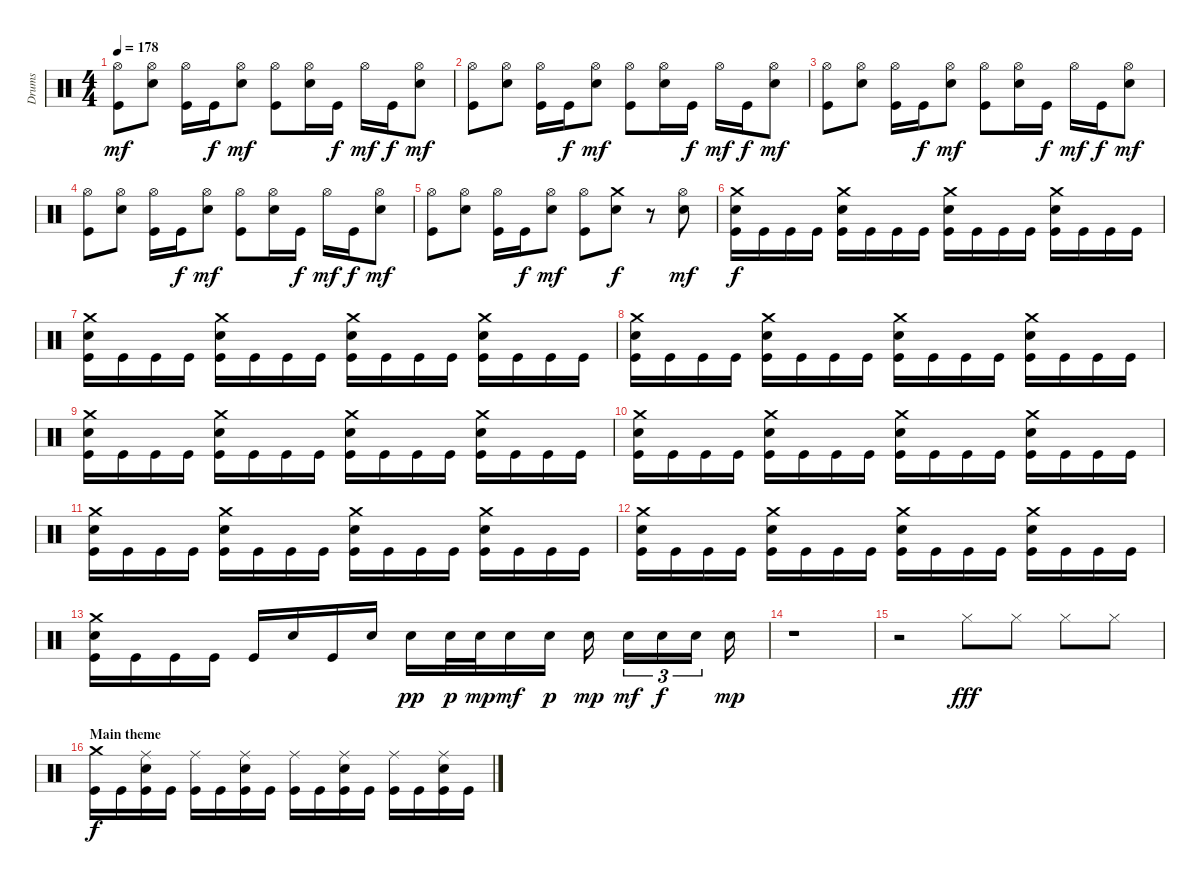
\track ("Drums" "Drums") {instrument percussion}
\staff {score}
\articulation defaults
\ts (4 4)
\tempo 178
\clef neutral
\ks c
("Hi-Hat (open)" "Kick (hit)").8{dy mf} ("Hi-Hat (open)" "Electric Snare (hit)").8 ("Hi-Hat (open)" "Kick (hit)").16 "Kick (hit)".16{dy f} ("Hi-Hat (open)" "Electric Snare (hit)").8{dy mf} ("Hi-Hat (open)" "Kick (hit)").8 ("Hi-Hat (open)" "Electric Snare (hit)").16 "Kick (hit)".16{dy f} "Hi-Hat (open)".16{dy mf} "Kick (hit)".16{dy f} ("Hi-Hat (open)" "Electric Snare (hit)").8{dy mf} |
("Hi-Hat (open)" "Kick (hit)").8 ("Hi-Hat (open)" "Electric Snare (hit)").8 ("Hi-Hat (open)" "Kick (hit)").16 "Kick (hit)".16{dy f} ("Hi-Hat (open)" "Electric Snare (hit)").8{dy mf} ("Hi-Hat (open)" "Kick (hit)").8 ("Hi-Hat (open)" "Electric Snare (hit)").16 "Kick (hit)".16{dy f} "Hi-Hat (open)".16{dy mf} "Kick (hit)".16{dy f} ("Hi-Hat (open)" "Electric Snare (hit)").8{dy mf} |
("Hi-Hat (open)" "Kick (hit)").8 ("Hi-Hat (open)" "Electric Snare (hit)").8 ("Hi-Hat (open)" "Kick (hit)").16 "Kick (hit)".16{dy f} ("Hi-Hat (open)" "Electric Snare (hit)").8{dy mf} ("Hi-Hat (open)" "Kick (hit)").8 ("Hi-Hat (open)" "Electric Snare (hit)").16 "Kick (hit)".16{dy f} "Hi-Hat (open)".16{dy mf} "Kick (hit)".16{dy f} ("Hi-Hat (open)" "Electric Snare (hit)").8{dy mf} |
("Hi-Hat (open)" "Kick (hit)").8 ("Hi-Hat (open)" "Electric Snare (hit)").8 ("Hi-Hat (open)" "Kick (hit)").16 "Kick (hit)".16{dy f} ("Hi-Hat (open)" "Electric Snare (hit)").8{dy mf} ("Hi-Hat (open)" "Kick (hit)").8 ("Hi-Hat (open)" "Electric Snare (hit)").16 "Kick (hit)".16{dy f} "Hi-Hat (open)".16{dy mf} "Kick (hit)".16{dy f} ("Hi-Hat (open)" "Electric Snare (hit)").8{dy mf} |
("Hi-Hat (open)" "Kick (hit)").8 ("Hi-Hat (open)" "Electric Snare (hit)").8 ("Hi-Hat (open)" "Kick (hit)").16 "Kick (hit)".16{dy f} ("Hi-Hat (open)" "Electric Snare (hit)").8{dy mf} ("Hi-Hat (open)" "Kick (hit)").8 ("Crash medium (hit)" "Electric Snare (hit)").8{dy f} r.8 ("Hi-Hat (open)" "Electric Snare (hit)").8{dy mf} |
("Crash medium (hit)" "Electric Snare (hit)" "Kick (hit)").16{dy f} "Kick (hit)".16 "Kick (hit)".16 "Kick (hit)".16 ("Crash medium (hit)" "Electric Snare (hit)" "Kick (hit)").16 "Kick (hit)".16 "Kick (hit)".16 "Kick (hit)".16 ("Crash medium (hit)" "Electric Snare (hit)" "Kick (hit)").16 "Kick (hit)".16 "Kick (hit)".16 "Kick (hit)".16 ("Crash medium (hit)" "Electric Snare (hit)" "Kick (hit)").16 "Kick (hit)".16 "Kick (hit)".16 "Kick (hit)".16 |
("Crash medium (hit)" "Electric Snare (hit)" "Kick (hit)").16 "Kick (hit)".16 "Kick (hit)".16 "Kick (hit)".16 ("Crash medium (hit)" "Electric Snare (hit)" "Kick (hit)").16 "Kick (hit)".16 "Kick (hit)".16 "Kick (hit)".16 ("Crash medium (hit)" "Electric Snare (hit)" "Kick (hit)").16 "Kick (hit)".16 "Kick (hit)".16 "Kick (hit)".16 ("Crash medium (hit)" "Electric Snare (hit)" "Kick (hit)").16 "Kick (hit)".16 "Kick (hit)".16 "Kick (hit)".16 |
("Crash medium (hit)" "Electric Snare (hit)" "Kick (hit)").16 "Kick (hit)".16 "Kick (hit)".16 "Kick (hit)".16 ("Crash medium (hit)" "Electric Snare (hit)" "Kick (hit)").16 "Kick (hit)".16 "Kick (hit)".16 "Kick (hit)".16 ("Crash medium (hit)" "Electric Snare (hit)" "Kick (hit)").16 "Kick (hit)".16 "Kick (hit)".16 "Kick (hit)".16 ("Crash medium (hit)" "Electric Snare (hit)" "Kick (hit)").16 "Kick (hit)".16 "Kick (hit)".16 "Kick (hit)".16 |
("Crash medium (hit)" "Electric Snare (hit)" "Kick (hit)").16 "Kick (hit)".16 "Kick (hit)".16 "Kick (hit)".16 ("Crash medium (hit)" "Electric Snare (hit)" "Kick (hit)").16 "Kick (hit)".16 "Kick (hit)".16 "Kick (hit)".16 ("Crash medium (hit)" "Electric Snare (hit)" "Kick (hit)").16 "Kick (hit)".16 "Kick (hit)".16 "Kick (hit)".16 ("Crash medium (hit)" "Electric Snare (hit)" "Kick (hit)").16 "Kick (hit)".16 "Kick (hit)".16 "Kick (hit)".16 |
("Crash medium (hit)" "Electric Snare (hit)" "Kick (hit)").16 "Kick (hit)".16 "Kick (hit)".16 "Kick (hit)".16 ("Crash medium (hit)" "Electric Snare (hit)" "Kick (hit)").16 "Kick (hit)".16 "Kick (hit)".16 "Kick (hit)".16 ("Crash medium (hit)" "Electric Snare (hit)" "Kick (hit)").16 "Kick (hit)".16 "Kick (hit)".16 "Kick (hit)".16 ("Crash medium (hit)" "Electric Snare (hit)" "Kick (hit)").16 "Kick (hit)".16 "Kick (hit)".16 "Kick (hit)".16 |
("Crash medium (hit)" "Electric Snare (hit)" "Kick (hit)").16 "Kick (hit)".16 "Kick (hit)".16 "Kick (hit)".16 ("Crash medium (hit)" "Electric Snare (hit)" "Kick (hit)").16 "Kick (hit)".16 "Kick (hit)".16 "Kick (hit)".16 ("Crash medium (hit)" "Electric Snare (hit)" "Kick (hit)").16 "Kick (hit)".16 "Kick (hit)".16 "Kick (hit)".16 ("Crash medium (hit)" "Electric Snare (hit)" "Kick (hit)").16 "Kick (hit)".16 "Kick (hit)".16 "Kick (hit)".16 |
("Crash medium (hit)" "Electric Snare (hit)" "Kick (hit)").16 "Kick (hit)".16 "Kick (hit)".16 "Kick (hit)".16 ("Crash medium (hit)" "Electric Snare (hit)" "Kick (hit)").16 "Kick (hit)".16 "Kick (hit)".16 "Kick (hit)".16 ("Crash medium (hit)" "Electric Snare (hit)" "Kick (hit)").16 "Kick (hit)".16 "Kick (hit)".16 "Kick (hit)".16 ("Crash medium (hit)" "Electric Snare (hit)" "Kick (hit)").16 "Kick (hit)".16 "Kick (hit)".16 "Kick (hit)".16 |
("Crash medium (hit)" "Electric Snare (hit)" "Kick (hit)").16 "Kick (hit)".16 "Kick (hit)".16 "Kick (hit)".16 "Kick (hit)".16 "Electric Snare (hit)".16 "Kick (hit)".16 "Electric Snare (hit)".16 "Electric Snare (hit)".16{dy pp} "Electric Snare (hit)".32{dy p} "Electric Snare (hit)".32{dy mp} "Electric Snare (hit)".16{dy mf} "Electric Snare (hit)".16{dy p} "Electric Snare (hit)".16{dy mp} "Electric Snare (hit)".16{tu (3 2) dy mf} "Electric Snare (hit)".16{tu (3 2) dy f} "Electric Snare (hit)".16{tu (3 2)} "Electric Snare (hit)".16{dy mp} |
r.1 |
r.2 "Hi-Hat (closed)".8{dy fff} "Hi-Hat (closed)".8 "Hi-Hat (closed)".8 "Hi-Hat (closed)".8 |
\section ("" "Main theme")
("Crash medium (hit)" "Kick (hit)").16{dy f} "Kick (hit)".16 ("Ride (middle)" "Electric Snare (hit)" "Kick (hit)").16 "Kick (hit)".16 ("Ride (middle)" "Kick (hit)").16 "Kick (hit)".16 ("Ride (middle)" "Electric Snare (hit)" "Kick (hit)").16 "Kick (hit)".16 ("Ride (middle)" "Kick (hit)").16 "Kick (hit)".16 ("Ride (middle)" "Electric Snare (hit)" "Kick (hit)").16 "Kick (hit)".16 ("Ride (middle)" "Kick (hit)").16 "Kick (hit)".16 ("Ride (middle)" "Electric Snare (hit)" "Kick (hit)").16 "Kick (hit)".16
